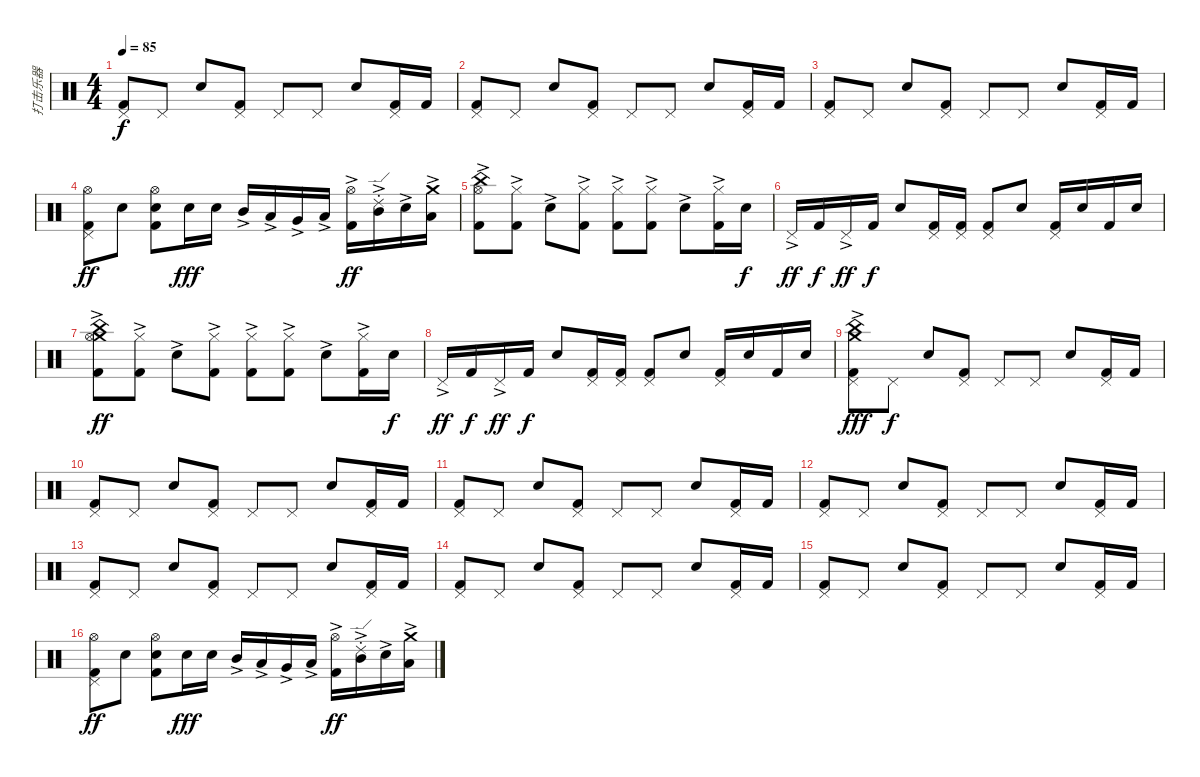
\track ("打击乐器" "打击乐器") {instrument percussion}
\staff {score}
\articulation defaults
\ts (4 4)
\tempo 85
\clef neutral
\ks c
("Pedal Hi-Hat (hit)" "Kick (hit) 2").8{dy f} "Pedal Hi-Hat (hit)".8 "Electric Snare (hit)".8 ("Pedal Hi-Hat (hit)" "Kick (hit) 2").8 "Pedal Hi-Hat (hit)".8 "Pedal Hi-Hat (hit)".8 "Electric Snare (hit)".8 ("Pedal Hi-Hat (hit)" "Kick (hit) 2").16 "Kick (hit) 2".16 |
("Pedal Hi-Hat (hit)" "Kick (hit) 2").8 "Pedal Hi-Hat (hit)".8 "Electric Snare (hit)".8 ("Pedal Hi-Hat (hit)" "Kick (hit) 2").8 "Pedal Hi-Hat (hit)".8 "Pedal Hi-Hat (hit)".8 "Electric Snare (hit)".8 ("Pedal Hi-Hat (hit)" "Kick (hit) 2").16 "Kick (hit) 2".16 |
("Pedal Hi-Hat (hit)" "Kick (hit) 2").8 "Pedal Hi-Hat (hit)".8 "Electric Snare (hit)".8 ("Pedal Hi-Hat (hit)" "Kick (hit) 2").8 "Pedal Hi-Hat (hit)".8 "Pedal Hi-Hat (hit)".8 "Electric Snare (hit)".8 ("Pedal Hi-Hat (hit)" "Kick (hit) 2").16 "Kick (hit) 2".16 |
("Hi-Hat (open)" "Pedal Hi-Hat (hit)" "Kick (hit) 2").8{dy ff} "Electric Snare (hit)".8 ("Hi-Hat (open)" "Electric Snare (hit)" "Kick (hit) 2").8 "Electric Snare (hit)".16{dy fff} "Electric Snare (hit)".16 "Mid Tom (hit)"{ac}.16 "Low Tom (hit)"{ac}.16 "Very Low Tom (hit)"{ac}.16 "Low Floor Tom (hit)"{ac}.16 ("Hi-Hat (open)"{ac} "Kick (hit) 2"{ac}).16{dy ff} ("Ride (edge) 2"{ac st} "Mid Tom (hit)"{ac}).16 "Electric Snare (hit)"{ac}.16 ("Crash medium (hit)"{ac} "Low Tom (hit)"{ac}).16 |
("China (hit)" "Hi-Hat (open)" "Kick (hit) 2"{ac}).8{volume 16} ("Hi-Hat (closed)" "Kick (hit) 2"{ac}).8 "Electric Snare (hit)"{ac}.8 ("Hi-Hat (closed)" "Kick (hit) 2"{ac}).8 ("Hi-Hat (closed)" "Kick (hit) 2"{ac}).8 ("Hi-Hat (closed)" "Kick (hit) 2"{ac}).8 "Electric Snare (hit)"{ac}.8 ("Hi-Hat (closed)" "Kick (hit) 2"{ac}).16 "Electric Snare (hit)".16{dy f} |
"Pedal Hi-Hat (hit)"{ac}.16{dy ff} "Kick (hit) 2".16{dy f} "Pedal Hi-Hat (hit)"{ac}.16{dy ff} "Kick (hit) 2".16{dy f} "Electric Snare (hit)".8 ("Pedal Hi-Hat (hit)" "Kick (hit) 2").16 ("Pedal Hi-Hat (hit)" "Kick (hit) 2").16 ("Pedal Hi-Hat (hit)" "Kick (hit) 2").8 "Electric Snare (hit)".8 ("Pedal Hi-Hat (hit)" "Kick (hit) 2").16 "Electric Snare (hit)".16 "Kick (hit) 2".16 "Electric Snare (hit)".16 |
("Crash medium (hit)" "China (hit)"{ac} "Hi-Hat (open)" "Kick (hit) 2"{ac}).8{dy ff} ("Hi-Hat (closed)" "Kick (hit) 2"{ac}).8 "Electric Snare (hit)"{ac}.8 ("Hi-Hat (closed)" "Kick (hit) 2"{ac}).8 ("Hi-Hat (closed)" "Kick (hit) 2"{ac}).8 ("Hi-Hat (closed)" "Kick (hit) 2"{ac}).8 "Electric Snare (hit)"{ac}.8 ("Hi-Hat (closed)" "Kick (hit) 2"{ac}).16 "Electric Snare (hit)".16{dy f} |
"Pedal Hi-Hat (hit)"{ac}.16{dy ff} "Kick (hit) 2".16{dy f} "Pedal Hi-Hat (hit)"{ac}.16{dy ff} "Kick (hit) 2".16{dy f} "Electric Snare (hit)".8 ("Pedal Hi-Hat (hit)" "Kick (hit) 2").16 ("Pedal Hi-Hat (hit)" "Kick (hit) 2").16 ("Pedal Hi-Hat (hit)" "Kick (hit) 2").8 "Electric Snare (hit)".8 ("Pedal Hi-Hat (hit)" "Kick (hit) 2").16 "Electric Snare (hit)".16 "Kick (hit) 2".16 "Electric Snare (hit)".16 |
("Crash medium (hit)"{ac} "China (hit)"{ac} "Pedal Hi-Hat (hit)" "Kick (hit) 2").8{dy fff} "Pedal Hi-Hat (hit)".8{dy f} "Electric Snare (hit)".8 ("Pedal Hi-Hat (hit)" "Kick (hit) 2").8 "Pedal Hi-Hat (hit)".8 "Pedal Hi-Hat (hit)".8 "Electric Snare (hit)".8 ("Pedal Hi-Hat (hit)" "Kick (hit) 2").16 "Kick (hit) 2".16 |
("Pedal Hi-Hat (hit)" "Kick (hit) 2").8 "Pedal Hi-Hat (hit)".8 "Electric Snare (hit)".8 ("Pedal Hi-Hat (hit)" "Kick (hit) 2").8 "Pedal Hi-Hat (hit)".8 "Pedal Hi-Hat (hit)".8 "Electric Snare (hit)".8 ("Pedal Hi-Hat (hit)" "Kick (hit) 2").16 "Kick (hit) 2".16 |
("Pedal Hi-Hat (hit)" "Kick (hit) 2").8 "Pedal Hi-Hat (hit)".8 "Electric Snare (hit)".8 ("Pedal Hi-Hat (hit)" "Kick (hit) 2").8 "Pedal Hi-Hat (hit)".8 "Pedal Hi-Hat (hit)".8 "Electric Snare (hit)".8 ("Pedal Hi-Hat (hit)" "Kick (hit) 2").16 "Kick (hit) 2".16 |
("Pedal Hi-Hat (hit)" "Kick (hit) 2").8 "Pedal Hi-Hat (hit)".8 "Electric Snare (hit)".8 ("Pedal Hi-Hat (hit)" "Kick (hit) 2").8 "Pedal Hi-Hat (hit)".8 "Pedal Hi-Hat (hit)".8 "Electric Snare (hit)".8 ("Pedal Hi-Hat (hit)" "Kick (hit) 2").16 "Kick (hit) 2".16 |
("Pedal Hi-Hat (hit)" "Kick (hit) 2").8 "Pedal Hi-Hat (hit)".8 "Electric Snare (hit)".8 ("Pedal Hi-Hat (hit)" "Kick (hit) 2").8 "Pedal Hi-Hat (hit)".8 "Pedal Hi-Hat (hit)".8 "Electric Snare (hit)".8 ("Pedal Hi-Hat (hit)" "Kick (hit) 2").16 "Kick (hit) 2".16 |
("Pedal Hi-Hat (hit)" "Kick (hit) 2").8 "Pedal Hi-Hat (hit)".8 "Electric Snare (hit)".8 ("Pedal Hi-Hat (hit)" "Kick (hit) 2").8 "Pedal Hi-Hat (hit)".8 "Pedal Hi-Hat (hit)".8 "Electric Snare (hit)".8 ("Pedal Hi-Hat (hit)" "Kick (hit) 2").16 "Kick (hit) 2".16 |
("Pedal Hi-Hat (hit)" "Kick (hit) 2").8 "Pedal Hi-Hat (hit)".8 "Electric Snare (hit)".8 ("Pedal Hi-Hat (hit)" "Kick (hit) 2").8 "Pedal Hi-Hat (hit)".8 "Pedal Hi-Hat (hit)".8 "Electric Snare (hit)".8 ("Pedal Hi-Hat (hit)" "Kick (hit) 2").16 "Kick (hit) 2".16 |
("Hi-Hat (open)" "Pedal Hi-Hat (hit)" "Kick (hit) 2").8{dy ff} "Electric Snare (hit)".8 ("Hi-Hat (open)" "Electric Snare (hit)" "Kick (hit) 2").8 "Electric Snare (hit)".16{dy fff} "Electric Snare (hit)".16 "Mid Tom (hit)"{ac}.16 "Low Tom (hit)"{ac}.16 "Very Low Tom (hit)"{ac}.16 "Low Floor Tom (hit)"{ac}.16 ("Hi-Hat (open)"{ac} "Kick (hit) 2"{ac}).16{dy ff} ("Ride (edge) 2"{ac st} "Mid Tom (hit)"{ac}).16 "Electric Snare (hit)"{ac}.16 ("Crash medium (hit)"{ac} "Low Tom (hit)"{ac}).16
